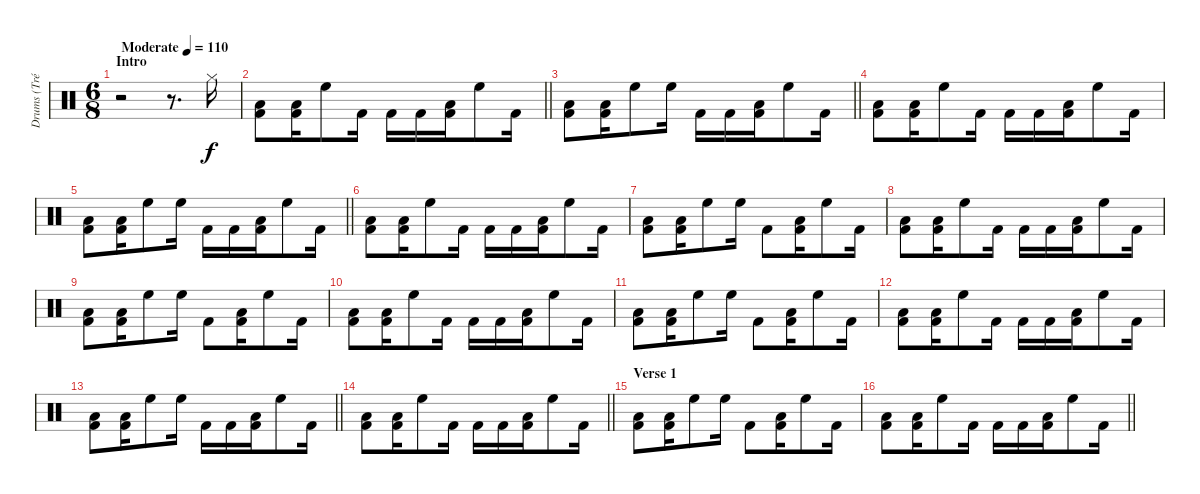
\track ("Drums (Tré Cool)" "Drums (Tré") {instrument percussion}
\staff {score}
\articulation defaults
\ts (6 8)
\section ("" "Intro")
\tempo (110 "Moderate")
\clef neutral
\ks c
r.2{dy f} r.8{d} "Hi-Hat (closed)".16 |
\barLineRight lightlight
("Kick (hit) 2" "Low Floor Tom (hit)").8 ("Kick (hit) 2" "Low Floor Tom (hit)").16 "High Floor Tom (hit)".8 "Kick (hit) 2".16 "Kick (hit) 2".16 "Kick (hit) 2".16 ("Kick (hit) 2" "Low Floor Tom (hit)").16 "High Floor Tom (hit)".8 "Kick (hit) 2".16 |
\barLineRight lightlight
("Kick (hit) 2" "Low Floor Tom (hit)").8 ("Kick (hit) 2" "Low Floor Tom (hit)").16 "High Floor Tom (hit)".8 "High Floor Tom (hit)".16 "Kick (hit) 2".16 "Kick (hit) 2".16 ("Kick (hit) 2" "Low Floor Tom (hit)").16 "High Floor Tom (hit)".8 "Kick (hit) 2".16 |
("Kick (hit) 2" "Low Floor Tom (hit)").8 ("Kick (hit) 2" "Low Floor Tom (hit)").16 "High Floor Tom (hit)".8 "Kick (hit) 2".16 "Kick (hit) 2".16 "Kick (hit) 2".16 ("Kick (hit) 2" "Low Floor Tom (hit)").16 "High Floor Tom (hit)".8 "Kick (hit) 2".16 |
\barLineRight lightlight
("Kick (hit) 2" "Low Floor Tom (hit)").8 ("Kick (hit) 2" "Low Floor Tom (hit)").16 "High Floor Tom (hit)".8 "High Floor Tom (hit)".16 "Kick (hit) 2".16 "Kick (hit) 2".16 ("Kick (hit) 2" "Low Floor Tom (hit)").16 "High Floor Tom (hit)".8 "Kick (hit) 2".16 |
("Kick (hit) 2" "Low Floor Tom (hit)").8 ("Kick (hit) 2" "Low Floor Tom (hit)").16 "High Floor Tom (hit)".8 "Kick (hit) 2".16 "Kick (hit) 2".16 "Kick (hit) 2".16 ("Kick (hit) 2" "Low Floor Tom (hit)").16 "High Floor Tom (hit)".8 "Kick (hit) 2".16 |
("Kick (hit) 2" "Low Floor Tom (hit)").8 ("Kick (hit) 2" "Low Floor Tom (hit)").16 "High Floor Tom (hit)".8 "High Floor Tom (hit)".16 "Kick (hit) 2".8 ("Kick (hit) 2" "Low Floor Tom (hit)").16 "High Floor Tom (hit)".8 "Kick (hit) 2".16 |
("Kick (hit) 2" "Low Floor Tom (hit)").8 ("Kick (hit) 2" "Low Floor Tom (hit)").16 "High Floor Tom (hit)".8 "Kick (hit) 2".16 "Kick (hit) 2".16 "Kick (hit) 2".16 ("Kick (hit) 2" "Low Floor Tom (hit)").16 "High Floor Tom (hit)".8 "Kick (hit) 2".16 |
("Kick (hit) 2" "Low Floor Tom (hit)").8 ("Kick (hit) 2" "Low Floor Tom (hit)").16 "High Floor Tom (hit)".8 "High Floor Tom (hit)".16 "Kick (hit) 2".8 ("Kick (hit) 2" "Low Floor Tom (hit)").16 "High Floor Tom (hit)".8 "Kick (hit) 2".16 |
("Kick (hit) 2" "Low Floor Tom (hit)").8 ("Kick (hit) 2" "Low Floor Tom (hit)").16 "High Floor Tom (hit)".8 "Kick (hit) 2".16 "Kick (hit) 2".16 "Kick (hit) 2".16 ("Kick (hit) 2" "Low Floor Tom (hit)").16 "High Floor Tom (hit)".8 "Kick (hit) 2".16 |
("Kick (hit) 2" "Low Floor Tom (hit)").8 ("Kick (hit) 2" "Low Floor Tom (hit)").16 "High Floor Tom (hit)".8 "High Floor Tom (hit)".16 "Kick (hit) 2".8 ("Kick (hit) 2" "Low Floor Tom (hit)").16 "High Floor Tom (hit)".8 "Kick (hit) 2".16 |
("Kick (hit) 2" "Low Floor Tom (hit)").8 ("Kick (hit) 2" "Low Floor Tom (hit)").16 "High Floor Tom (hit)".8 "Kick (hit) 2".16 "Kick (hit) 2".16 "Kick (hit) 2".16 ("Kick (hit) 2" "Low Floor Tom (hit)").16 "High Floor Tom (hit)".8 "Kick (hit) 2".16 |
\barLineRight lightlight
("Kick (hit) 2" "Low Floor Tom (hit)").8 ("Kick (hit) 2" "Low Floor Tom (hit)").16 "High Floor Tom (hit)".8 "High Floor Tom (hit)".16 "Kick (hit) 2".16 "Kick (hit) 2".16 ("Kick (hit) 2" "Low Floor Tom (hit)").16 "High Floor Tom (hit)".8 "Kick (hit) 2".16 |
\barLineRight lightlight
("Kick (hit) 2" "Low Floor Tom (hit)").8 ("Kick (hit) 2" "Low Floor Tom (hit)").16 "High Floor Tom (hit)".8 "Kick (hit) 2".16 "Kick (hit) 2".16 "Kick (hit) 2".16 ("Kick (hit) 2" "Low Floor Tom (hit)").16 "High Floor Tom (hit)".8 "Kick (hit) 2".16 |
\section ("" "Verse 1")
("Kick (hit) 2" "Low Floor Tom (hit)").8 ("Kick (hit) 2" "Low Floor Tom (hit)").16 "High Floor Tom (hit)".8 "High Floor Tom (hit)".16 "Kick (hit) 2".8 ("Kick (hit) 2" "Low Floor Tom (hit)").16 "High Floor Tom (hit)".8 "Kick (hit) 2".16 |
\barLineRight lightlight
("Kick (hit) 2" "Low Floor Tom (hit)").8 ("Kick (hit) 2" "Low Floor Tom (hit)").16 "High Floor Tom (hit)".8 "Kick (hit) 2".16 "Kick (hit) 2".16 "Kick (hit) 2".16 ("Kick (hit) 2" "Low Floor Tom (hit)").16 "High Floor Tom (hit)".8 "Kick (hit) 2".16
